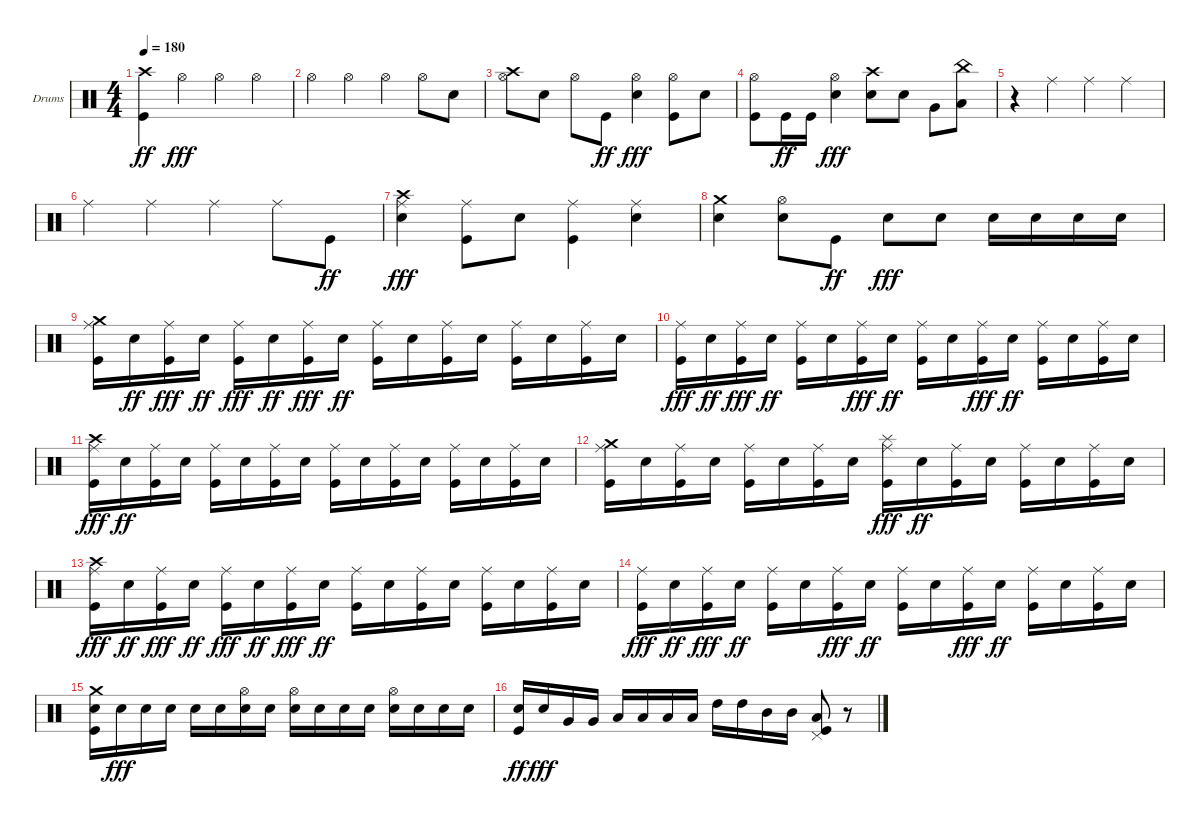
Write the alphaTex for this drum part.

\bracketExtendMode groupsimilarinstruments
\firstSystemTrackNameOrientation horizontal
\otherSystemsTrackNameOrientation horizontal
\track ("Drumkit" "Drums") {instrument percussion}
\staff {score}
\articulation defaults
\ts (4 4)
\tempo 180
\clef neutral
\ks c
("Kick (hit)" "Crash high (hit)").4{dy ff} "Hi-Hat (open)".4{dy fff} "Hi-Hat (open)".4 "Hi-Hat (open)".4 |
"Hi-Hat (open)".4 "Hi-Hat (open)".4 "Hi-Hat (open)".4 "Hi-Hat (open)".8 "Snare (hit) 2".8 |
("Hi-Hat (open)" "Crash high (hit)").8 "Snare (hit) 2".8 "Hi-Hat (open)".8 "Kick (hit)".8{dy ff} ("Hi-Hat (open)" "Snare (hit) 2").4{dy fff} ("Hi-Hat (open)" "Kick (hit)").8 "Snare (hit) 2".8 |
("Hi-Hat (open)" "Kick (hit)").8 "Kick (hit)".16{dy ff} "Kick (hit)".16 ("Hi-Hat (open)" "Snare (hit) 2").4{dy fff} ("Crash high (hit)" "Snare (hit) 2").8 "Snare (hit) 2".8 "Very Low Tom (hit)".8 ("China (hit)" "Low Tom (hit)").8 |
r.4 "Ride (middle)".4 "Ride (middle)".4 "Ride (middle)".4 |
"Ride (middle)".4 "Ride (middle)".4 "Ride (middle)".4 "Ride (middle)".8 "Kick (hit)".8{dy ff} |
("Ride (middle)" "Crash high (hit)" "Snare (hit) 2").4{dy fff} ("Ride (middle)" "Kick (hit)").8 "Snare (hit) 2".8 ("Ride (middle)" "Kick (hit)").4 ("Ride (middle)" "Snare (hit) 2").4 |
("Crash medium (hit)" "Snare (hit) 2").4 ("Hi-Hat (open)" "Snare (hit) 2").8 "Kick (hit)".8{dy ff} "Snare (hit) 2".8{dy fff} "Snare (hit) 2".8 "Snare (hit) 2".16 "Snare (hit) 2".16 "Snare (hit) 2".16 "Snare (hit) 2".16 |
("Crash medium (hit)" "Ride (middle)" "Kick (hit)").16 "Snare (hit) 2".16{dy ff} ("Ride (middle)" "Kick (hit)").16{dy fff} "Snare (hit) 2".16{dy ff} ("Ride (middle)" "Kick (hit)").16{dy fff} "Snare (hit) 2".16{dy ff} ("Ride (middle)" "Kick (hit)").16{dy fff} "Snare (hit) 2".16{dy ff} ("Kick (hit)" "Ride (middle)").16 "Snare (hit) 2".16 ("Kick (hit)" "Ride (middle)").16 "Snare (hit) 2".16 ("Kick (hit)" "Ride (middle)").16 "Snare (hit) 2".16 ("Kick (hit)" "Ride (middle)").16 "Snare (hit) 2".16 |
("Ride (middle)" "Kick (hit)").16{dy fff} "Snare (hit) 2".16{dy ff} ("Ride (middle)" "Kick (hit)").16{dy fff} "Snare (hit) 2".16{dy ff} ("Kick (hit)" "Ride (middle)").16 "Snare (hit) 2".16 ("Ride (middle)" "Kick (hit)").16{dy fff} "Snare (hit) 2".16{dy ff} ("Kick (hit)" "Ride (middle)").16 "Snare (hit) 2".16 ("Ride (middle)" "Kick (hit)").16{dy fff} "Snare (hit) 2".16{dy ff} ("Kick (hit)" "Ride (middle)").16 "Snare (hit) 2".16 ("Kick (hit)" "Ride (middle)").16 "Snare (hit) 2".16 |
("Crash high (hit)" "Kick (hit)" "Ride (middle)").16{dy fff} "Snare (hit) 2".16{dy ff} ("Kick (hit)" "Ride (middle)").16 "Snare (hit) 2".16 ("Kick (hit)" "Ride (middle)").16 "Snare (hit) 2".16 ("Kick (hit)" "Ride (middle)").16 "Snare (hit) 2".16 ("Kick (hit)" "Ride (middle)").16 "Snare (hit) 2".16 ("Kick (hit)" "Ride (middle)").16 "Snare (hit) 2".16 ("Kick (hit)" "Ride (middle)").16 "Snare (hit) 2".16 ("Kick (hit)" "Ride (middle)").16 "Snare (hit) 2".16 |
("Kick (hit)" "Ride (middle)" "Crash medium (hit)").16 "Snare (hit) 2".16 ("Kick (hit)" "Ride (middle)").16 "Snare (hit) 2".16 ("Kick (hit)" "Ride (middle)").16 "Snare (hit) 2".16 ("Kick (hit)" "Ride (middle)").16 "Snare (hit) 2".16 ("Splash (hit)" "Kick (hit)" "Ride (middle)").16{dy fff} "Snare (hit) 2".16{dy ff} ("Kick (hit)" "Ride (middle)").16 "Snare (hit) 2".16 ("Kick (hit)" "Ride (middle)").16 "Snare (hit) 2".16 ("Kick (hit)" "Ride (middle)").16 "Snare (hit) 2".16 |
("Crash high (hit)" "Ride (middle)" "Kick (hit)").16{dy fff} "Snare (hit) 2".16{dy ff} ("Ride (middle)" "Kick (hit)").16{dy fff} "Snare (hit) 2".16{dy ff} ("Ride (middle)" "Kick (hit)").16{dy fff} "Snare (hit) 2".16{dy ff} ("Ride (middle)" "Kick (hit)").16{dy fff} "Snare (hit) 2".16{dy ff} ("Kick (hit)" "Ride (middle)").16 "Snare (hit) 2".16 ("Kick (hit)" "Ride (middle)").16 "Snare (hit) 2".16 ("Kick (hit)" "Ride (middle)").16 "Snare (hit) 2".16 ("Kick (hit)" "Ride (middle)").16 "Snare (hit) 2".16 |
("Ride (middle)" "Kick (hit)").16{dy fff} "Snare (hit) 2".16{dy ff} ("Ride (middle)" "Kick (hit)").16{dy fff} "Snare (hit) 2".16{dy ff} ("Kick (hit)" "Ride (middle)").16 "Snare (hit) 2".16 ("Ride (middle)" "Kick (hit)").16{dy fff} "Snare (hit) 2".16{dy ff} ("Kick (hit)" "Ride (middle)").16 "Snare (hit) 2".16 ("Ride (middle)" "Kick (hit)").16{dy fff} "Snare (hit) 2".16{dy ff} ("Kick (hit)" "Ride (middle)").16 "Snare (hit) 2".16 ("Kick (hit)" "Ride (middle)").16 "Snare (hit) 2".16 |
("Kick (hit)" "Crash medium (hit)" "Snare (hit) 2").16 "Snare (hit) 2".16{dy fff} "Snare (hit) 2".16 "Snare (hit) 2".16 "Snare (hit) 2".16 "Snare (hit) 2".16 ("Hi-Hat (open)" "Snare (hit) 2").16 "Snare (hit) 2".16 ("Hi-Hat (open)" "Snare (hit) 2").16 "Snare (hit) 2".16 "Snare (hit) 2".16 "Snare (hit) 2".16 ("Hi-Hat (open)" "Snare (hit) 2").16 "Snare (hit) 2".16 "Snare (hit) 2".16 "Snare (hit) 2".16 |
("Kick (hit)" "Snare (hit) 2").16{dy ff} "Snare (hit) 2".16{dy fff} "Very Low Tom (hit)".16 "Very Low Tom (hit)".16 "Low Tom (hit)".16 "Low Tom (hit)".16 "Low Tom (hit)".16 "Low Tom (hit)".16 "High Tom (hit)".16 "High Tom (hit)".16 "Mid Tom (hit)".16 "Mid Tom (hit)".16 ("Pedal Hi-Hat (hit)" "Low Tom (hit)" "Kick (hit)").8 r.8
